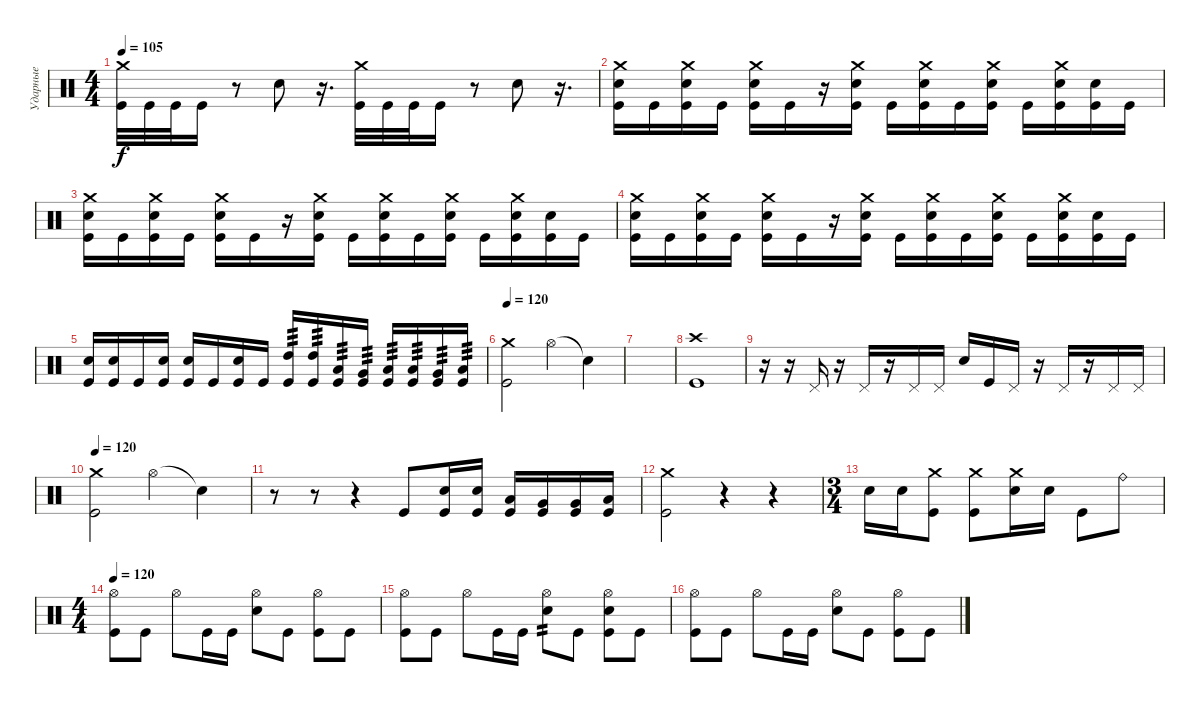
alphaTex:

\track ("Ударные" "Ударные") {instrument percussion}
\staff {score}
\articulation defaults
\ts (4 4)
\tempo 105
\clef neutral
\ks c
("Crash medium (hit)" "Kick (hit)").32{dy f} "Kick (hit)".32 "Kick (hit)".32 "Kick (hit)".16 r.8 "Electric Snare (hit)".8 r.16{d} ("Crash medium (hit)" "Kick (hit)").32 "Kick (hit)".32 "Kick (hit)".32 "Kick (hit)".16 r.8 "Electric Snare (hit)".8 r.16{d} |
("Crash medium (hit)" "Electric Snare (hit)" "Kick (hit)").16 "Kick (hit)".16 ("Crash medium (hit)" "Electric Snare (hit)" "Kick (hit)").16 "Kick (hit)".16 ("Crash medium (hit)" "Electric Snare (hit)" "Kick (hit)").16 "Kick (hit)".16 r.16 ("Crash medium (hit)" "Electric Snare (hit)" "Kick (hit)").16 "Kick (hit)".16 ("Crash medium (hit)" "Electric Snare (hit)" "Kick (hit)").16 "Kick (hit)".16 ("Crash medium (hit)" "Electric Snare (hit)" "Kick (hit)").16 "Kick (hit)".16 ("Crash medium (hit)" "Electric Snare (hit)" "Kick (hit)").16 ("Electric Snare (hit)" "Kick (hit)").16 "Kick (hit)".16 |
("Crash medium (hit)" "Electric Snare (hit)" "Kick (hit)").16 "Kick (hit)".16 ("Crash medium (hit)" "Electric Snare (hit)" "Kick (hit)").16 "Kick (hit)".16 ("Crash medium (hit)" "Electric Snare (hit)" "Kick (hit)").16 "Kick (hit)".16 r.16 ("Crash medium (hit)" "Electric Snare (hit)" "Kick (hit)").16 "Kick (hit)".16 ("Crash medium (hit)" "Electric Snare (hit)" "Kick (hit)").16 "Kick (hit)".16 ("Crash medium (hit)" "Electric Snare (hit)" "Kick (hit)").16 "Kick (hit)".16 ("Crash medium (hit)" "Electric Snare (hit)" "Kick (hit)").16 ("Electric Snare (hit)" "Kick (hit)").16 "Kick (hit)".16 |
("Crash medium (hit)" "Electric Snare (hit)" "Kick (hit)").16 "Kick (hit)".16 ("Crash medium (hit)" "Electric Snare (hit)" "Kick (hit)").16 "Kick (hit)".16 ("Crash medium (hit)" "Electric Snare (hit)" "Kick (hit)").16 "Kick (hit)".16 r.16 ("Crash medium (hit)" "Electric Snare (hit)" "Kick (hit)").16 "Kick (hit)".16 ("Crash medium (hit)" "Electric Snare (hit)" "Kick (hit)").16 "Kick (hit)".16 ("Crash medium (hit)" "Electric Snare (hit)" "Kick (hit)").16 "Kick (hit)".16 ("Crash medium (hit)" "Electric Snare (hit)" "Kick (hit)").16 ("Electric Snare (hit)" "Kick (hit)").16 "Kick (hit)".16 |
("Electric Snare (hit)" "Kick (hit)").16 ("Electric Snare (hit)" "Kick (hit)").16 "Kick (hit)".16 ("Electric Snare (hit)" "Kick (hit)").16 ("Electric Snare (hit)" "Kick (hit)").16 "Kick (hit)".16 ("Electric Snare (hit)" "Kick (hit)").16 "Kick (hit)".16 ("High Tom (hit)" "Kick (hit)").16{tp 3} ("High Tom (hit)" "Kick (hit)").16{tp 3} ("Low Tom (hit)" "Kick (hit)").16{tp 3} ("Very Low Tom (hit)" "Kick (hit)").16{tp 3} ("Low Tom (hit)" "Kick (hit)").16{tp 3} ("Low Tom (hit)" "Kick (hit)").16{tp 3} ("Very Low Tom (hit)" "Kick (hit)").16{tp 3} ("Low Floor Tom (hit)" "Kick (hit)").16{tp 3} |
\tempo 120
("Crash medium (hit)" "Kick (hit)").2 "Hi-Hat (open)".4 "Snare (hit)"{t}.4 |
|
("Crash high (hit)" "Kick (hit)").1 |
r.16 r.16 "Pedal Hi-Hat (hit)".16 r.16 "Pedal Hi-Hat (hit)".16 r.16 "Pedal Hi-Hat (hit)".16 "Pedal Hi-Hat (hit)".16 "Electric Snare (hit)".16 "Kick (hit)".16 "Pedal Hi-Hat (hit)".16 r.16 "Pedal Hi-Hat (hit)".16 r.16 "Pedal Hi-Hat (hit)".16 "Pedal Hi-Hat (hit)".16 |
\tempo 120
("Crash medium (hit)" "Kick (hit)").2 "Hi-Hat (open)".4 "Snare (hit)"{t}.4 |
r.8 r.8 r.4 "Kick (hit)".8 ("Electric Snare (hit)" "Kick (hit)").16 ("Electric Snare (hit)" "Kick (hit)").16 ("Low Tom (hit)" "Kick (hit)").16 ("Very Low Tom (hit)" "Kick (hit)").16 ("Very Low Tom (hit)" "Kick (hit)").16 ("Low Floor Tom (hit)" "Kick (hit)").16 |
("Crash medium (hit)" "Kick (hit)").2 r.4 r.4 |
\ts (3 4)
"Electric Snare (hit)".16 "Electric Snare (hit)".16 ("Crash medium (hit)" "Kick (hit)").8 ("Crash medium (hit)" "Kick (hit)").8 ("Crash medium (hit)" "Electric Snare (hit)").16 "Electric Snare (hit)".16 "Kick (hit)".8 "Ride (bell)".8 |
\ts (4 4)
\tempo 120
("Hi-Hat (open)" "Kick (hit)").8 "Kick (hit)".8 "Hi-Hat (open)".8 "Kick (hit)".16 "Kick (hit)".16 ("Hi-Hat (open)" "Electric Snare (hit)").8 "Kick (hit)".8 ("Hi-Hat (open)" "Kick (hit)").8 "Kick (hit)".8 |
("Hi-Hat (open)" "Kick (hit)").8 "Kick (hit)".8 "Hi-Hat (open)".8 "Kick (hit)".16 "Kick (hit)".16 ("Hi-Hat (open)" "Electric Snare (hit)").8{tp 2} "Kick (hit)".8 ("Hi-Hat (open)" "Electric Snare (hit)" "Kick (hit)").8 "Kick (hit)".8 |
("Hi-Hat (open)" "Kick (hit)").8 "Kick (hit)".8 "Hi-Hat (open)".8 "Kick (hit)".16 "Kick (hit)".16 ("Hi-Hat (open)" "Electric Snare (hit)").8 "Kick (hit)".8 ("Hi-Hat (open)" "Kick (hit)").8 "Kick (hit)".8
